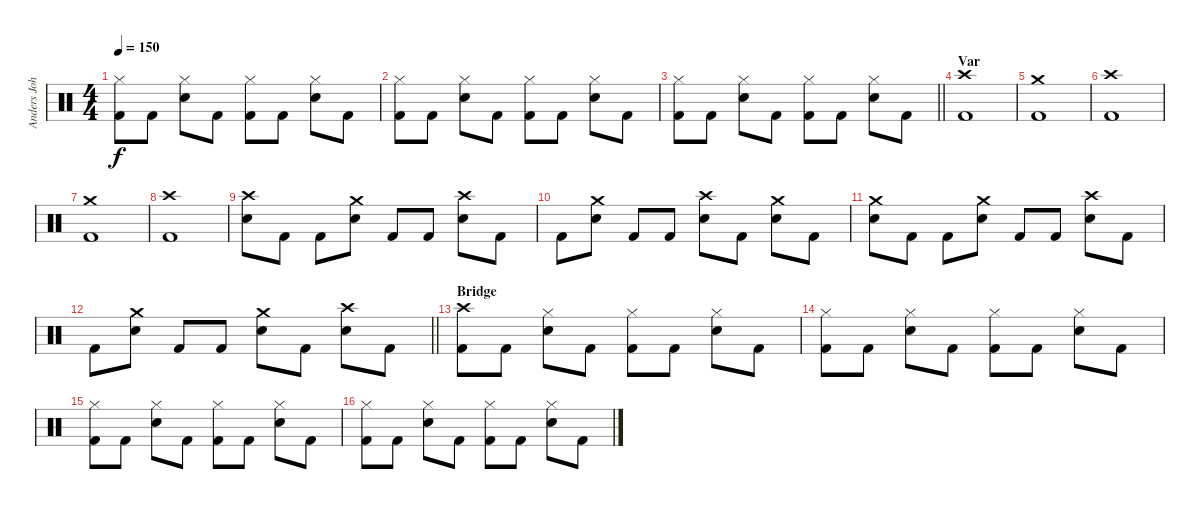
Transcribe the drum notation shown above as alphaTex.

\track ("Anders Johansson" "Anders Joh") {instrument percussion}
\staff {score}
\articulation defaults
\ts (4 4)
\tempo 150
\clef neutral
\ks c
("Hi-Hat (closed)" "Kick (hit) 2").8{dy f} "Kick (hit) 2".8 ("Hi-Hat (closed)" "Snare (hit) 2").8 "Kick (hit) 2".8 ("Hi-Hat (closed)" "Kick (hit) 2").8 "Kick (hit) 2".8 ("Hi-Hat (closed)" "Snare (hit) 2").8 "Kick (hit) 2".8 |
("Hi-Hat (closed)" "Kick (hit) 2").8 "Kick (hit) 2".8 ("Hi-Hat (closed)" "Snare (hit) 2").8 "Kick (hit) 2".8 ("Hi-Hat (closed)" "Kick (hit) 2").8 "Kick (hit) 2".8 ("Hi-Hat (closed)" "Snare (hit) 2").8 "Kick (hit) 2".8 |
\barLineRight lightlight
("Hi-Hat (closed)" "Kick (hit) 2").8 "Kick (hit) 2".8 ("Hi-Hat (closed)" "Snare (hit) 2").8 "Kick (hit) 2".8 ("Hi-Hat (closed)" "Kick (hit) 2").8 "Kick (hit) 2".8 ("Hi-Hat (closed)" "Snare (hit) 2").8 "Kick (hit) 2".8 |
\section ("" "Var")
("Crash high (hit)" "Kick (hit) 2").1 |
("Crash medium (hit)" "Kick (hit) 2").1 |
("Crash high (hit)" "Kick (hit) 2").1 |
("Crash medium (hit)" "Kick (hit) 2").1 |
("Crash high (hit)" "Kick (hit) 2").1 |
("Crash high (hit)" "Snare (hit) 2").8 "Kick (hit) 2".8 "Kick (hit) 2".8 ("Crash medium (hit)" "Snare (hit) 2").8 "Kick (hit) 2".8 "Kick (hit) 2".8 ("Crash high (hit)" "Snare (hit) 2").8 "Kick (hit) 2".8 |
"Kick (hit) 2".8 ("Crash medium (hit)" "Snare (hit) 2").8 "Kick (hit) 2".8 "Kick (hit) 2".8 ("Crash high (hit)" "Snare (hit) 2").8 "Kick (hit) 2".8 ("Crash medium (hit)" "Snare (hit) 2").8 "Kick (hit) 2".8 |
("Crash medium (hit)" "Snare (hit) 2").8 "Kick (hit) 2".8 "Kick (hit) 2".8 ("Crash medium (hit)" "Snare (hit) 2").8 "Kick (hit) 2".8 "Kick (hit) 2".8 ("Crash high (hit)" "Snare (hit) 2").8 "Kick (hit) 2".8 |
\barLineRight lightlight "Kick (hit) 2".8
("Crash medium (hit)" "Snare (hit) 2").8 "Kick (hit) 2".8 "Kick (hit) 2".8 ("Crash medium (hit)" "Snare (hit) 2").8 "Kick (hit) 2".8 ("Crash high (hit)" "Snare (hit) 2").8 "Kick (hit) 2".8 |
\section ("" "Bridge")
("Crash high (hit)" "Kick (hit) 2").8 "Kick (hit) 2".8 ("Hi-Hat (closed)" "Snare (hit) 2").8 "Kick (hit) 2".8 ("Hi-Hat (closed)" "Kick (hit) 2").8 "Kick (hit) 2".8 ("Hi-Hat (closed)" "Snare (hit) 2").8 "Kick (hit) 2".8 |
("Hi-Hat (closed)" "Kick (hit) 2").8 "Kick (hit) 2".8 ("Hi-Hat (closed)" "Snare (hit) 2").8 "Kick (hit) 2".8 ("Hi-Hat (closed)" "Kick (hit) 2").8 "Kick (hit) 2".8 ("Hi-Hat (closed)" "Snare (hit) 2").8 "Kick (hit) 2".8 |
("Hi-Hat (closed)" "Kick (hit) 2").8 "Kick (hit) 2".8 ("Hi-Hat (closed)" "Snare (hit) 2").8 "Kick (hit) 2".8 ("Hi-Hat (closed)" "Kick (hit) 2").8 "Kick (hit) 2".8 ("Hi-Hat (closed)" "Snare (hit) 2").8 "Kick (hit) 2".8 |
("Hi-Hat (closed)" "Kick (hit) 2").8 "Kick (hit) 2".8 ("Hi-Hat (closed)" "Snare (hit) 2").8 "Kick (hit) 2".8 ("Hi-Hat (closed)" "Kick (hit) 2").8 "Kick (hit) 2".8 ("Hi-Hat (closed)" "Snare (hit) 2").8 "Kick (hit) 2".8
